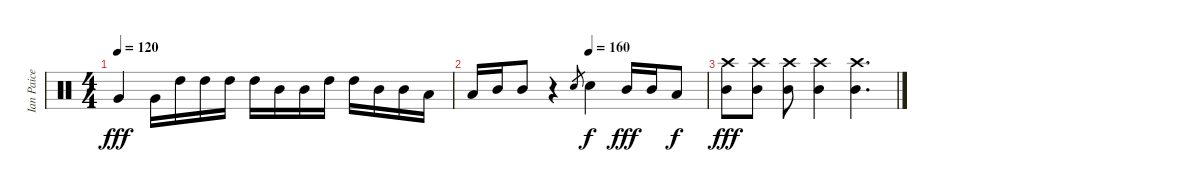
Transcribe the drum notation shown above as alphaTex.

\track ("Ian Paice" "Ian Paice") {instrument percussion}
\staff {score}
\articulation defaults
\ts (4 4)
\tempo 120
\clef neutral
\ks c "Very Low Tom (hit)".4{dy fff} "Very Low Tom (hit)".16 "High Tom (hit)".16 "High Tom (hit)".16 "High Tom (hit)".16 "High Tom (hit)".16 "Mid Tom (hit)".16 "Mid Tom (hit)".16 "High Tom (hit)".16 "High Tom (hit)".16 "Mid Tom (hit)".16 "Mid Tom (hit)".16 "Low Tom (hit)".16
|
\tempo (160 0.5)
"Low Tom (hit)".16 "Mid Tom (hit)".16 "Mid Tom (hit)".8 r.4 "Snare (hit) 2".8{gr} "Snare (hit) 2".4{dy f} "Mid Tom (hit)".16{dy fff} "Mid Tom (hit)".16 "Low Tom (hit)".8{dy f} |
("Crash high (hit)" "Mid Tom (hit)").8{dy fff} ("Crash high (hit)" "Mid Tom (hit)").8 ("Crash high (hit)" "Mid Tom (hit)").8 ("Crash high (hit)" "Mid Tom (hit)").4 ("Crash high (hit)" "Mid Tom (hit)").4{d}
